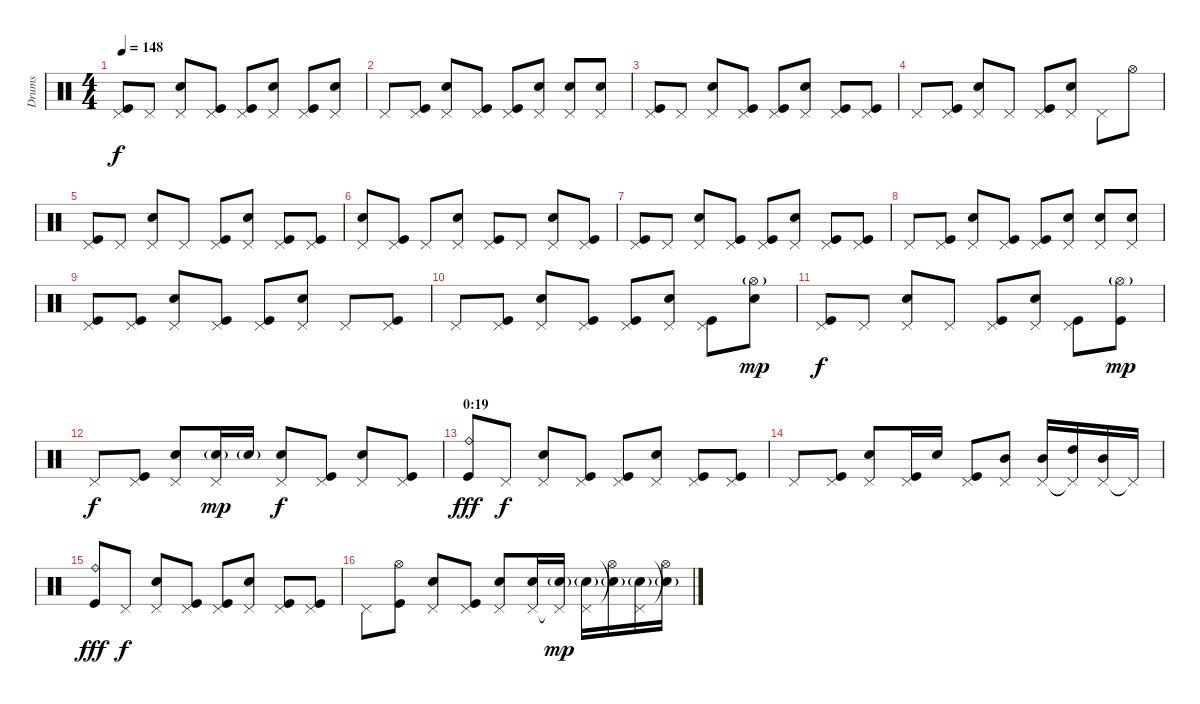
\track ("Drums" "Drums") {instrument percussion}
\staff {score}
\articulation defaults
\ts (4 4)
\tempo 148
\clef neutral
\ks c
("Pedal Hi-Hat (hit)" "Kick (hit)").8{dy f} "Pedal Hi-Hat (hit)".8 ("Pedal Hi-Hat (hit)" "Electric Snare (hit)").8 ("Pedal Hi-Hat (hit)" "Kick (hit)").8 ("Pedal Hi-Hat (hit)" "Kick (hit)").8 ("Pedal Hi-Hat (hit)" "Electric Snare (hit)").8 ("Pedal Hi-Hat (hit)" "Kick (hit)").8 ("Pedal Hi-Hat (hit)" "Electric Snare (hit)").8 |
"Pedal Hi-Hat (hit)".8 ("Pedal Hi-Hat (hit)" "Kick (hit)").8 ("Pedal Hi-Hat (hit)" "Electric Snare (hit)").8 ("Pedal Hi-Hat (hit)" "Kick (hit)").8 ("Pedal Hi-Hat (hit)" "Kick (hit)").8 ("Pedal Hi-Hat (hit)" "Electric Snare (hit)").8 ("Pedal Hi-Hat (hit)" "Electric Snare (hit)").8 ("Pedal Hi-Hat (hit)" "Electric Snare (hit)").8 |
("Pedal Hi-Hat (hit)" "Kick (hit)").8 "Pedal Hi-Hat (hit)".8 ("Pedal Hi-Hat (hit)" "Electric Snare (hit)").8 ("Pedal Hi-Hat (hit)" "Kick (hit)").8 ("Pedal Hi-Hat (hit)" "Kick (hit)").8 ("Pedal Hi-Hat (hit)" "Electric Snare (hit)").8 ("Pedal Hi-Hat (hit)" "Kick (hit)").8 ("Pedal Hi-Hat (hit)" "Kick (hit)").8 |
"Pedal Hi-Hat (hit)".8 ("Pedal Hi-Hat (hit)" "Kick (hit)").8 ("Pedal Hi-Hat (hit)" "Electric Snare (hit)").8 "Pedal Hi-Hat (hit)".8 ("Pedal Hi-Hat (hit)" "Kick (hit)").8 ("Pedal Hi-Hat (hit)" "Electric Snare (hit)").8 "Pedal Hi-Hat (hit)".8 "Hi-Hat (open)".8 |
("Pedal Hi-Hat (hit)" "Kick (hit)").8 "Pedal Hi-Hat (hit)".8 ("Pedal Hi-Hat (hit)" "Electric Snare (hit)").8 "Pedal Hi-Hat (hit)".8 ("Pedal Hi-Hat (hit)" "Kick (hit)").8 ("Pedal Hi-Hat (hit)" "Electric Snare (hit)").8 ("Pedal Hi-Hat (hit)" "Kick (hit)").8 ("Pedal Hi-Hat (hit)" "Kick (hit)").8 |
("Pedal Hi-Hat (hit)" "Electric Snare (hit)").8 ("Pedal Hi-Hat (hit)" "Kick (hit)").8 "Pedal Hi-Hat (hit)".8 ("Pedal Hi-Hat (hit)" "Electric Snare (hit)").8 ("Pedal Hi-Hat (hit)" "Kick (hit)").8 "Pedal Hi-Hat (hit)".8 ("Pedal Hi-Hat (hit)" "Electric Snare (hit)").8 ("Pedal Hi-Hat (hit)" "Kick (hit)").8 |
("Pedal Hi-Hat (hit)" "Kick (hit)").8 "Pedal Hi-Hat (hit)".8 ("Pedal Hi-Hat (hit)" "Electric Snare (hit)").8 ("Pedal Hi-Hat (hit)" "Kick (hit)").8 ("Pedal Hi-Hat (hit)" "Kick (hit)").8 ("Pedal Hi-Hat (hit)" "Electric Snare (hit)").8 ("Pedal Hi-Hat (hit)" "Kick (hit)").8 ("Pedal Hi-Hat (hit)" "Kick (hit)").8 |
"Pedal Hi-Hat (hit)".8 ("Pedal Hi-Hat (hit)" "Kick (hit)").8 ("Pedal Hi-Hat (hit)" "Electric Snare (hit)").8 ("Pedal Hi-Hat (hit)" "Kick (hit)").8 ("Pedal Hi-Hat (hit)" "Kick (hit)").8 ("Pedal Hi-Hat (hit)" "Electric Snare (hit)").8 ("Pedal Hi-Hat (hit)" "Electric Snare (hit)").8 ("Pedal Hi-Hat (hit)" "Electric Snare (hit)").8 |
("Pedal Hi-Hat (hit)" "Kick (hit)").8 ("Pedal Hi-Hat (hit)" "Kick (hit)").8 ("Pedal Hi-Hat (hit)" "Electric Snare (hit)").8 ("Pedal Hi-Hat (hit)" "Kick (hit)").8 ("Pedal Hi-Hat (hit)" "Kick (hit)").8 ("Pedal Hi-Hat (hit)" "Electric Snare (hit)").8 "Pedal Hi-Hat (hit)".8 ("Pedal Hi-Hat (hit)" "Kick (hit)").8 |
"Pedal Hi-Hat (hit)".8 ("Pedal Hi-Hat (hit)" "Kick (hit)").8 ("Pedal Hi-Hat (hit)" "Electric Snare (hit)").8 ("Pedal Hi-Hat (hit)" "Kick (hit)").8 ("Pedal Hi-Hat (hit)" "Kick (hit)").8 ("Pedal Hi-Hat (hit)" "Electric Snare (hit)").8 ("Pedal Hi-Hat (hit)" "Kick (hit)").8 ("Hi-Hat (open)"{g} "Electric Snare (hit)").8{dy mp} |
("Pedal Hi-Hat (hit)" "Kick (hit)").8{dy f} "Pedal Hi-Hat (hit)".8 ("Pedal Hi-Hat (hit)" "Electric Snare (hit)").8 "Pedal Hi-Hat (hit)".8 ("Pedal Hi-Hat (hit)" "Kick (hit)").8 ("Pedal Hi-Hat (hit)" "Electric Snare (hit)").8 ("Pedal Hi-Hat (hit)" "Kick (hit)").8 ("Hi-Hat (open)"{g} "Kick (hit)").8{dy mp} |
"Pedal Hi-Hat (hit)".8{dy f} ("Pedal Hi-Hat (hit)" "Kick (hit)").8 ("Pedal Hi-Hat (hit)" "Electric Snare (hit)").8 ("Pedal Hi-Hat (hit)" "Electric Snare (hit)"{g}).16{dy mp} "Electric Snare (hit)"{g}.16 ("Pedal Hi-Hat (hit)" "Electric Snare (hit)").8{dy f} ("Pedal Hi-Hat (hit)" "Kick (hit)").8 ("Pedal Hi-Hat (hit)" "Electric Snare (hit)").8 ("Pedal Hi-Hat (hit)" "Kick (hit)").8 |
\section ("" "0:19")
("Ride (bell)" "Kick (hit)").8{dy fff} "Pedal Hi-Hat (hit)".8{dy f} ("Pedal Hi-Hat (hit)" "Electric Snare (hit)").8 ("Pedal Hi-Hat (hit)" "Kick (hit)").8 ("Pedal Hi-Hat (hit)" "Kick (hit)").8 ("Pedal Hi-Hat (hit)" "Electric Snare (hit)").8 ("Pedal Hi-Hat (hit)" "Kick (hit)").8 ("Pedal Hi-Hat (hit)" "Kick (hit)").8 |
"Pedal Hi-Hat (hit)".8 ("Pedal Hi-Hat (hit)" "Kick (hit)").8 ("Pedal Hi-Hat (hit)" "Electric Snare (hit)").8 ("Pedal Hi-Hat (hit)" "Kick (hit)").16 "Electric Snare (hit)".16 ("Pedal Hi-Hat (hit)" "Kick (hit)").8 ("Pedal Hi-Hat (hit)" "Mid Tom (hit)").8 ("Pedal Hi-Hat (hit)" "Mid Tom (hit)").16 ("Pedal Hi-Hat (hit)"{t} "High Tom (hit)").16 ("Pedal Hi-Hat (hit)" "Mid Tom (hit)").16 "Pedal Hi-Hat (hit)"{t}.16 |
("Ride (bell)" "Kick (hit)").8{dy fff} "Pedal Hi-Hat (hit)".8{dy f} ("Pedal Hi-Hat (hit)" "Electric Snare (hit)").8 ("Pedal Hi-Hat (hit)" "Kick (hit)").8 ("Pedal Hi-Hat (hit)" "Kick (hit)").8 ("Pedal Hi-Hat (hit)" "Electric Snare (hit)").8 ("Pedal Hi-Hat (hit)" "Kick (hit)").8 ("Pedal Hi-Hat (hit)" "Kick (hit)").8 |
"Pedal Hi-Hat (hit)".8 ("Hi-Hat (open)" "Kick (hit)").8 ("Pedal Hi-Hat (hit)" "Electric Snare (hit)").8 ("Pedal Hi-Hat (hit)" "Kick (hit)").8 ("Pedal Hi-Hat (hit)" "Electric Snare (hit)").8 ("Pedal Hi-Hat (hit)" "Electric Snare (hit)").16 ("Pedal Hi-Hat (hit)"{t} "Electric Snare (hit)"{g}).16{dy mp} ("Pedal Hi-Hat (hit)"{t} "Electric Snare (hit)"{g}).16 ("Hi-Hat (open)"{t} "Electric Snare (hit)"{g}).16 ("Pedal Hi-Hat (hit)" "Electric Snare (hit)"{g}).16 ("Hi-Hat (open)"{t} "Electric Snare (hit)"{g}).16
